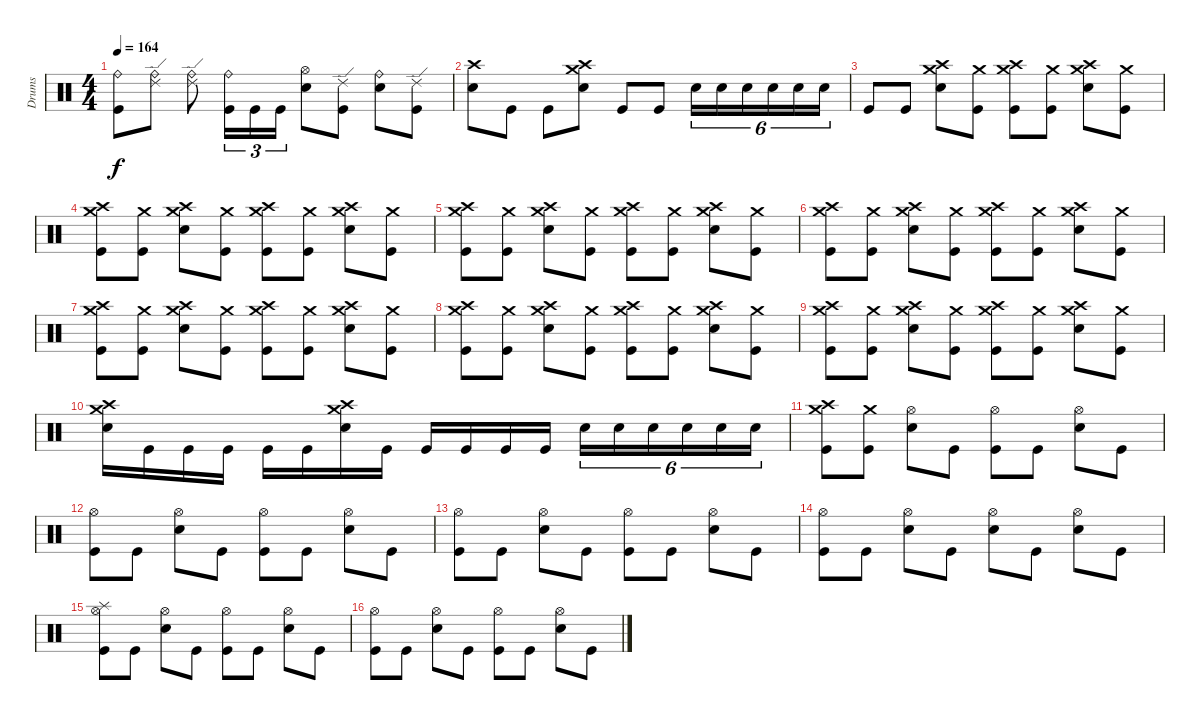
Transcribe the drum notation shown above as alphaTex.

\track ("Drums" "Drums") {instrument percussion}
\staff {score}
\articulation defaults
\ts (4 4)
\tempo 164
\clef neutral
\ks c
("Ride (bell)" "Kick (hit)").8{dy f} ("Ride (edge) 2" "Ride (bell)").8 ("Ride (edge) 2" "Ride (bell)").8 ("Ride (bell)" "Kick (hit)").16{tu (3 2)} "Kick (hit)".16{tu (3 2)} "Kick (hit)".16{tu (3 2)} ("Snare (hit) 2" "Hi-Hat (open)").8 ("Ride (edge) 2" "Kick (hit)").8 ("Snare (hit) 2" "Ride (bell)").8 ("Ride (edge) 2" "Kick (hit)").8 |
("Snare (hit) 2" "Crash high (hit)").8 "Kick (hit)".8 "Kick (hit)".8 ("Snare (hit) 2" "Crash high (hit)" "Crash medium (hit)").8 "Kick (hit)".8 "Kick (hit)".8 "Snare (hit) 2".16{tu (6 4)} "Snare (hit) 2".16{tu (6 4)} "Snare (hit) 2".16{tu (6 4)} "Snare (hit) 2".16{tu (6 4)} "Snare (hit) 2".16{tu (6 4)} "Snare (hit) 2".16{tu (6 4)} |
"Kick (hit)".8 "Kick (hit)".8 ("Snare (hit) 2" "Crash medium (hit)" "Crash high (hit)").8 ("Crash medium (hit)" "Kick (hit)").8 ("Crash medium (hit)" "Kick (hit)" "Crash high (hit)").8 ("Crash medium (hit)" "Kick (hit)").8 ("Snare (hit) 2" "Crash medium (hit)" "Crash high (hit)").8 ("Crash medium (hit)" "Kick (hit)").8 |
("Crash medium (hit)" "Kick (hit)" "Crash high (hit)").8 ("Crash medium (hit)" "Kick (hit)").8 ("Snare (hit) 2" "Crash medium (hit)" "Crash high (hit)").8 ("Crash medium (hit)" "Kick (hit)").8 ("Crash medium (hit)" "Kick (hit)" "Crash high (hit)").8 ("Crash medium (hit)" "Kick (hit)").8 ("Snare (hit) 2" "Crash medium (hit)" "Crash high (hit)").8 ("Crash medium (hit)" "Kick (hit)").8 |
("Crash medium (hit)" "Kick (hit)" "Crash high (hit)").8 ("Crash medium (hit)" "Kick (hit)").8 ("Snare (hit) 2" "Crash medium (hit)" "Crash high (hit)").8 ("Crash medium (hit)" "Kick (hit)").8 ("Crash medium (hit)" "Kick (hit)" "Crash high (hit)").8 ("Crash medium (hit)" "Kick (hit)").8 ("Snare (hit) 2" "Crash medium (hit)" "Crash high (hit)").8 ("Crash medium (hit)" "Kick (hit)").8 |
("Crash medium (hit)" "Kick (hit)" "Crash high (hit)").8 ("Crash medium (hit)" "Kick (hit)").8 ("Snare (hit) 2" "Crash medium (hit)" "Crash high (hit)").8 ("Crash medium (hit)" "Kick (hit)").8 ("Crash medium (hit)" "Kick (hit)" "Crash high (hit)").8 ("Crash medium (hit)" "Kick (hit)").8 ("Snare (hit) 2" "Crash medium (hit)" "Crash high (hit)").8 ("Crash medium (hit)" "Kick (hit)").8 |
("Crash medium (hit)" "Kick (hit)" "Crash high (hit)").8 ("Crash medium (hit)" "Kick (hit)").8 ("Snare (hit) 2" "Crash medium (hit)" "Crash high (hit)").8 ("Crash medium (hit)" "Kick (hit)").8 ("Crash medium (hit)" "Kick (hit)" "Crash high (hit)").8 ("Crash medium (hit)" "Kick (hit)").8 ("Snare (hit) 2" "Crash medium (hit)" "Crash high (hit)").8 ("Crash medium (hit)" "Kick (hit)").8 |
("Crash medium (hit)" "Kick (hit)" "Crash high (hit)").8 ("Crash medium (hit)" "Kick (hit)").8 ("Snare (hit) 2" "Crash medium (hit)" "Crash high (hit)").8 ("Crash medium (hit)" "Kick (hit)").8 ("Crash medium (hit)" "Kick (hit)" "Crash high (hit)").8 ("Crash medium (hit)" "Kick (hit)").8 ("Snare (hit) 2" "Crash medium (hit)" "Crash high (hit)").8 ("Crash medium (hit)" "Kick (hit)").8 |
("Crash medium (hit)" "Kick (hit)" "Crash high (hit)").8 ("Crash medium (hit)" "Kick (hit)").8 ("Snare (hit) 2" "Crash medium (hit)" "Crash high (hit)").8 ("Crash medium (hit)" "Kick (hit)").8 ("Crash medium (hit)" "Kick (hit)" "Crash high (hit)").8 ("Crash medium (hit)" "Kick (hit)").8 ("Snare (hit) 2" "Crash medium (hit)" "Crash high (hit)").8 ("Crash medium (hit)" "Kick (hit)").8 |
("Snare (hit) 2" "Crash medium (hit)" "Crash high (hit)").16 "Kick (hit)".16 "Kick (hit)".16 "Kick (hit)".16 "Kick (hit)".16 "Kick (hit)".16 ("Snare (hit) 2" "Crash medium (hit)" "Crash high (hit)").16 "Kick (hit)".16 "Kick (hit)".16 "Kick (hit)".16 "Kick (hit)".16 "Kick (hit)".16 "Snare (hit) 2".16{tu (6 4)} "Snare (hit) 2".16{tu (6 4)} "Snare (hit) 2".16{tu (6 4)} "Snare (hit) 2".16{tu (6 4)} "Snare (hit) 2".16{tu (6 4)} "Snare (hit) 2".16{tu (6 4)} |
("Crash medium (hit)" "Kick (hit)" "Crash high (hit)").8 ("Crash medium (hit)" "Kick (hit)").8 ("Snare (hit) 2" "Hi-Hat (open)").8 "Kick (hit)".8 ("Hi-Hat (open)" "Kick (hit)").8 "Kick (hit)".8 ("Snare (hit) 2" "Hi-Hat (open)").8 "Kick (hit)".8 |
("Hi-Hat (open)" "Kick (hit)").8 "Kick (hit)".8 ("Snare (hit) 2" "Hi-Hat (open)").8 "Kick (hit)".8 ("Hi-Hat (open)" "Kick (hit)").8 "Kick (hit)".8 ("Snare (hit) 2" "Hi-Hat (open)").8 "Kick (hit)".8 |
("Hi-Hat (open)" "Kick (hit)").8 "Kick (hit)".8 ("Snare (hit) 2" "Hi-Hat (open)").8 "Kick (hit)".8 ("Hi-Hat (open)" "Kick (hit)").8 "Kick (hit)".8 ("Snare (hit) 2" "Hi-Hat (open)").8 "Kick (hit)".8 |
("Hi-Hat (open)" "Kick (hit)").8 "Kick (hit)".8 ("Snare (hit) 2" "Hi-Hat (open)").8 "Kick (hit)".8 ("Snare (hit) 2" "Hi-Hat (open)").8 "Kick (hit)".8 ("Snare (hit) 2" "Hi-Hat (open)").8 "Kick (hit)".8 |
("Hi-Hat (open)" "Kick (hit)" "Splash (hit)").8 "Kick (hit)".8 ("Snare (hit) 2" "Hi-Hat (open)").8 "Kick (hit)".8 ("Hi-Hat (open)" "Kick (hit)").8 "Kick (hit)".8 ("Snare (hit) 2" "Hi-Hat (open)").8 "Kick (hit)".8 |
("Hi-Hat (open)" "Kick (hit)").8 "Kick (hit)".8 ("Snare (hit) 2" "Hi-Hat (open)").8 "Kick (hit)".8 ("Hi-Hat (open)" "Kick (hit)").8 "Kick (hit)".8 ("Snare (hit) 2" "Hi-Hat (open)").8 "Kick (hit)".8
